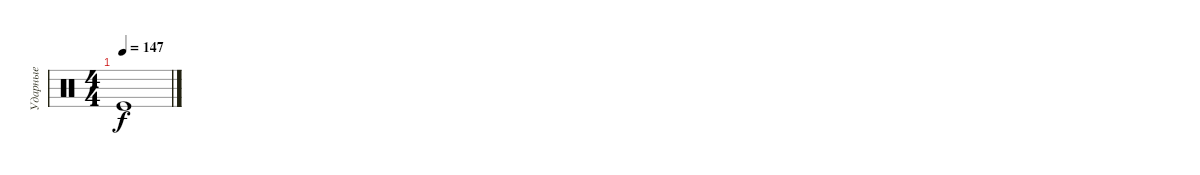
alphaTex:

\track ("Ударные" "Ударные") {instrument percussion}
\staff {score}
\articulation defaults
\ts (4 4)
\tempo 147
\clef neutral
\ks c "Kick (hit)".1{dy f}
